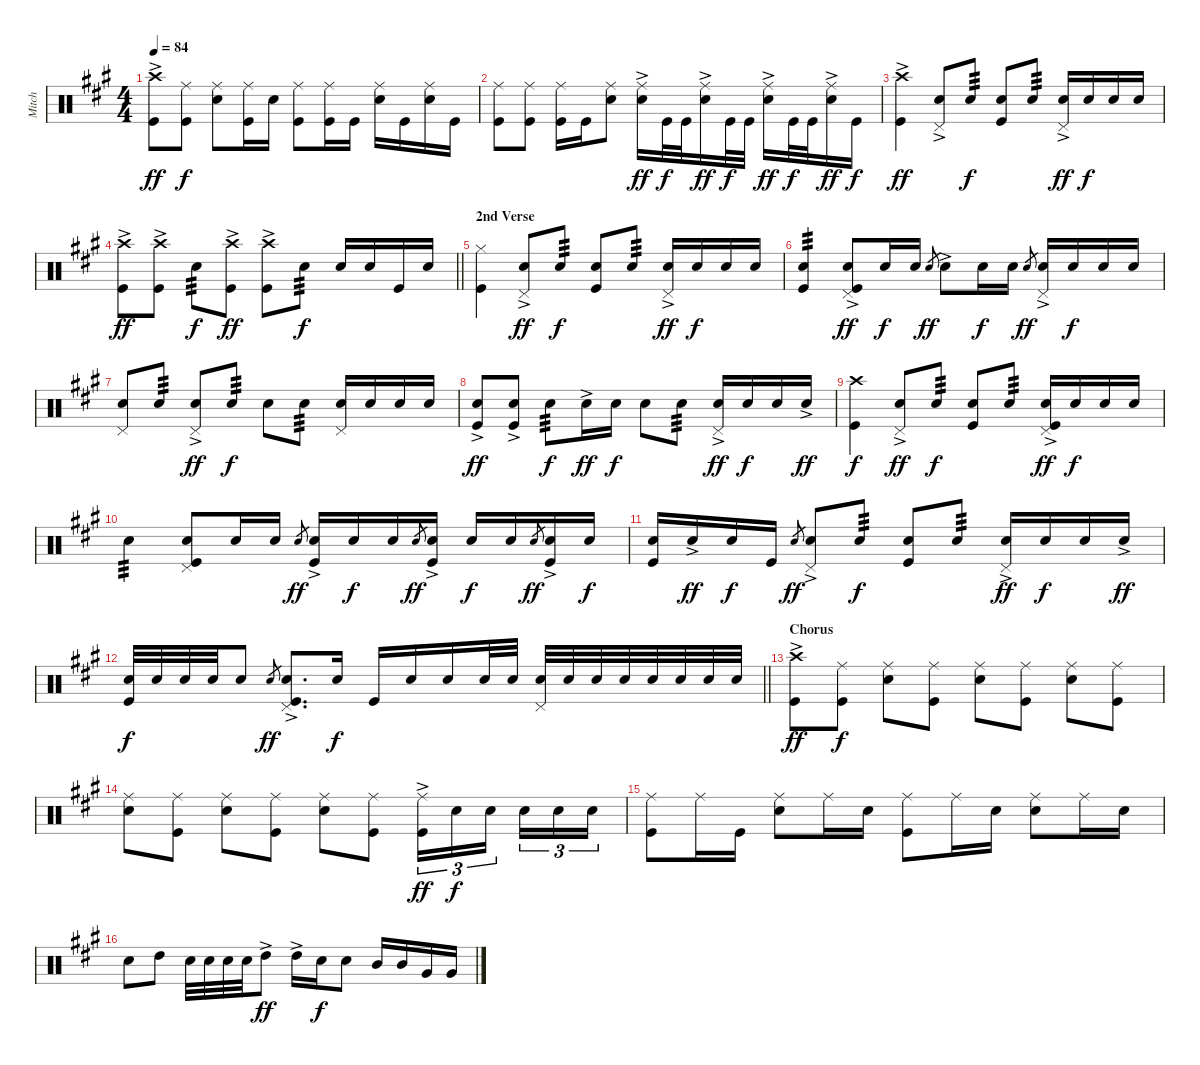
\track ("Mitch" "Mitch") {instrument percussion}
\staff {score}
\articulation defaults
\ts (4 4)
\tempo 84
\clef neutral
\ks a
("Crash high (hit)"{ac} "Kick (hit)").8{dy ff} ("Ride (middle)" "Kick (hit)").8{dy f} ("Ride (middle)" "Snare (hit) 2").8 ("Ride (middle)" "Kick (hit)").16 "Snare (hit) 2".16 ("Ride (middle)" "Kick (hit)").8 ("Ride (middle)" "Kick (hit)").16 "Kick (hit)".16 ("Ride (middle)" "Snare (hit) 2").16 "Kick (hit)".16 ("Ride (middle)" "Snare (hit) 2").16 "Kick (hit)".16 |
("Ride (middle)" "Kick (hit)").8 ("Ride (middle)" "Kick (hit)").8 ("Ride (middle)" "Kick (hit)").16 "Kick (hit)".16 ("Ride (middle)" "Snare (hit) 2").8 ("Ride (middle)" "Snare (hit) 2"{ac}).16{dy ff} "Kick (hit)".32{dy f} "Kick (hit)".32 ("Ride (middle)" "Snare (hit) 2"{ac}).16{dy ff} "Kick (hit)".32{dy f} "Kick (hit)".32 ("Ride (middle)" "Snare (hit) 2"{ac}).16{dy ff} "Kick (hit)".32{dy f} "Kick (hit)".32 ("Ride (middle)" "Snare (hit) 2"{ac}).16{dy ff} "Kick (hit)".16{dy f} |
("Crash high (hit)"{ac} "Kick (hit)").4{dy ff} ("Snare (hit) 2"{ac} "Pedal Hi-Hat (hit)").8 "Snare (hit) 2".8{tp 3 dy f} ("Snare (hit) 2" "Kick (hit)").8 "Snare (hit) 2".8{tp 3} ("Snare (hit) 2"{ac} "Pedal Hi-Hat (hit)").16{dy ff} "Snare (hit) 2".16{dy f} "Snare (hit) 2".16 "Snare (hit) 2".16 |
\barLineRight lightlight
("Crash high (hit)"{ac} "Kick (hit)").8{dy ff} ("Crash high (hit)"{ac} "Kick (hit)").8 "Snare (hit) 2".8{tp 3 dy f} ("Crash high (hit)"{ac} "Kick (hit)").8{dy ff} ("Crash high (hit)"{ac} "Kick (hit)").8 "Snare (hit) 2".8{tp 3 dy f} "Snare (hit) 2".16 "Snare (hit) 2".16 "Kick (hit)".16 "Snare (hit) 2".16 |
\section ("" "2nd Verse")
("Hi-Hat (closed)" "Kick (hit)").4 ("Snare (hit) 2"{ac} "Pedal Hi-Hat (hit)").8{dy ff} "Snare (hit) 2".8{tp 3 dy f} ("Snare (hit) 2" "Kick (hit)").8 "Snare (hit) 2".8{tp 3} ("Snare (hit) 2"{ac} "Pedal Hi-Hat (hit)").16{dy ff} "Snare (hit) 2".16{dy f} "Snare (hit) 2".16 "Snare (hit) 2".16 |
("Snare (hit) 2" "Kick (hit)").4{tp 3} ("Snare (hit) 2"{ac} "Kick (hit)" "Pedal Hi-Hat (hit)").8{dy ff} "Snare (hit) 2".16{dy f} "Snare (hit) 2".16 "Snare (hit) 2".8{gr dy ff} "Snare (hit) 2"{ac}.8 "Snare (hit) 2".16{dy f} "Snare (hit) 2".16 "Snare (hit) 2".8{gr dy ff} ("Snare (hit) 2"{ac} "Pedal Hi-Hat (hit)").16 "Snare (hit) 2".16{dy f} "Snare (hit) 2".16 "Snare (hit) 2".16 |
("Snare (hit) 2" "Pedal Hi-Hat (hit)").8 "Snare (hit) 2".8{tp 3} ("Snare (hit) 2"{ac} "Pedal Hi-Hat (hit)").8{dy ff} "Snare (hit) 2".8{tp 3 dy f} "Snare (hit) 2".8 "Snare (hit) 2".8{tp 3} ("Snare (hit) 2" "Pedal Hi-Hat (hit)").16 "Snare (hit) 2".16 "Snare (hit) 2".16 "Snare (hit) 2".16 |
("Snare (hit) 2"{ac} "Kick (hit)").8{dy ff} ("Snare (hit) 2"{ac} "Kick (hit)").8 "Snare (hit) 2".8{tp 3 dy f} "Snare (hit) 2"{ac}.16{dy ff} "Snare (hit) 2".16{dy f} "Snare (hit) 2".8 "Snare (hit) 2".8{tp 3} ("Snare (hit) 2"{ac} "Pedal Hi-Hat (hit)").16{dy ff} "Snare (hit) 2".16{dy f} "Snare (hit) 2".16 "Snare (hit) 2"{ac}.16{dy ff} |
("Crash high (hit)" "Kick (hit)").4{dy f} ("Snare (hit) 2"{ac} "Pedal Hi-Hat (hit)").8{dy ff} "Snare (hit) 2".8{tp 3 dy f} ("Snare (hit) 2" "Kick (hit)").8 "Snare (hit) 2".8{tp 3} ("Snare (hit) 2"{ac} "Kick (hit)" "Pedal Hi-Hat (hit)").16{dy ff} "Snare (hit) 2".16{dy f} "Snare (hit) 2".16 "Snare (hit) 2".16 |
"Snare (hit) 2".4{tp 3} ("Snare (hit) 2" "Kick (hit)" "Pedal Hi-Hat (hit)").8 "Snare (hit) 2".16 "Snare (hit) 2".16 "Snare (hit) 2".8{gr dy ff} ("Snare (hit) 2"{ac} "Kick (hit)").16 "Snare (hit) 2".16{dy f} "Snare (hit) 2".16 "Snare (hit) 2".8{gr dy ff} ("Snare (hit) 2"{ac} "Kick (hit)").16 "Snare (hit) 2".16{dy f} "Snare (hit) 2".16 "Snare (hit) 2".8{gr dy ff} ("Snare (hit) 2"{ac} "Kick (hit)").16 "Snare (hit) 2".16{dy f} |
("Snare (hit) 2" "Kick (hit)").16 "Snare (hit) 2"{ac}.16{dy ff} "Snare (hit) 2".16{dy f} "Kick (hit)".16 "Snare (hit) 2".8{gr dy ff} ("Snare (hit) 2"{ac} "Pedal Hi-Hat (hit)").8 "Snare (hit) 2".8{tp 3 dy f} ("Snare (hit) 2" "Kick (hit)").8 "Snare (hit) 2".8{tp 3} ("Snare (hit) 2"{ac} "Pedal Hi-Hat (hit)").16{dy ff} "Snare (hit) 2".16{dy f} "Snare (hit) 2".16 "Snare (hit) 2"{ac}.16{dy ff} |
\barLineRight lightlight
("Snare (hit) 2" "Kick (hit)").32{dy f} "Snare (hit) 2".32 "Snare (hit) 2".32 "Snare (hit) 2".32 "Snare (hit) 2".8 "Snare (hit) 2".8{gr dy ff} ("Snare (hit) 2"{ac} "Kick (hit)" "Pedal Hi-Hat (hit)").8{d} "Snare (hit) 2".16{dy f} "Kick (hit)".16 "Snare (hit) 2".16 "Snare (hit) 2".16 "Snare (hit) 2".32 "Snare (hit) 2".32 ("Snare (hit) 2" "Pedal Hi-Hat (hit)").32 "Snare (hit) 2".32 "Snare (hit) 2".32 "Snare (hit) 2".32 "Snare (hit) 2".32 "Snare (hit) 2".32 "Snare (hit) 2".32 "Snare (hit) 2".32 |
\section ("" "Chorus")
("Crash high (hit)"{ac} "Kick (hit)").8{dy ff} ("Ride (middle)" "Kick (hit)").8{dy f} ("Ride (middle)" "Snare (hit) 2").8 ("Ride (middle)" "Kick (hit)").8 ("Ride (middle)" "Snare (hit) 2").8 ("Ride (middle)" "Kick (hit)").8 ("Ride (middle)" "Snare (hit) 2").8 ("Ride (middle)" "Kick (hit)").8 |
("Ride (middle)" "Snare (hit) 2").8 ("Ride (middle)" "Kick (hit)").8 ("Ride (middle)" "Snare (hit) 2").8 ("Ride (middle)" "Kick (hit)").8 ("Ride (middle)" "Snare (hit) 2").8 ("Ride (middle)" "Kick (hit)").8 ("Ride (middle)"{ac} "Kick (hit)").16{tu (3 2) dy ff} "Snare (hit) 2".16{tu (3 2) dy f} "Snare (hit) 2".16{tu (3 2) beam splitsecondary} "Snare (hit) 2".16{tu (3 2)} "Snare (hit) 2".16{tu (3 2)} "Snare (hit) 2".16{tu (3 2)} |
("Ride (middle)" "Kick (hit)").8 "Ride (middle)".16 "Kick (hit)".16 ("Ride (middle)" "Snare (hit) 2").8 "Ride (middle)".16 "Snare (hit) 2".16 ("Ride (middle)" "Kick (hit)").8 "Ride (middle)".16 "Snare (hit) 2".16 ("Ride (middle)" "Snare (hit) 2").8 "Ride (middle)".16 "Snare (hit) 2".16 |
"Snare (hit) 2".8 "High Tom (hit)".8 "Snare (hit) 2".32 "Snare (hit) 2".32 "Snare (hit) 2".32 "Snare (hit) 2".32 "High Tom (hit)"{ac}.8{dy ff} "High Tom (hit)"{ac}.16 "Snare (hit) 2".16{dy f} "Snare (hit) 2".8 "Mid Tom (hit)".16 "Mid Tom (hit)".16 "Very Low Tom (hit)".16 "Very Low Tom (hit)".16
